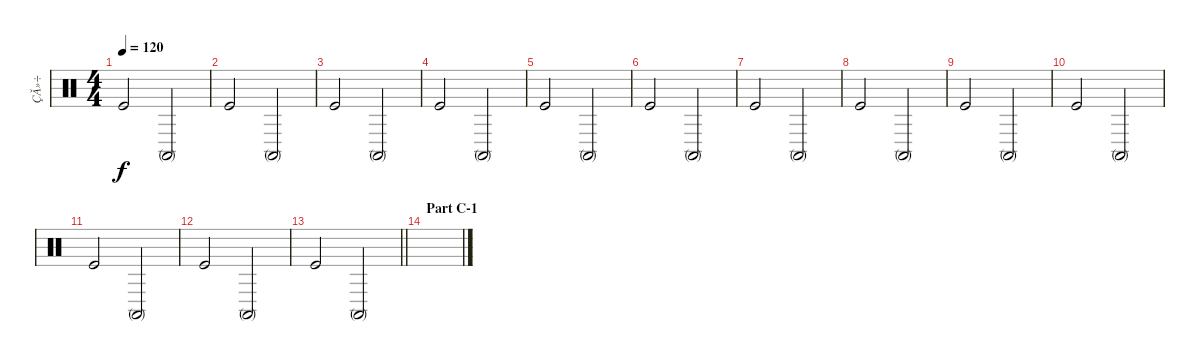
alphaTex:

\track ("ÇĂ»÷" "ÇĂ»÷") {instrument percussion}
\staff {score}
\articulation defaults
\ts (4 4)
\tempo 120
\clef neutral
\ks c "Kick (hit)".2{dy f} "Conga high (mute)".2
|
"Kick (hit)".2 "Conga high (mute)".2 |
"Kick (hit)".2 "Conga high (mute)".2 |
"Kick (hit)".2 "Conga high (mute)".2 |
"Kick (hit)".2 "Conga high (mute)".2 |
"Kick (hit)".2 "Conga high (mute)".2 |
"Kick (hit)".2 "Conga high (mute)".2 |
"Kick (hit)".2 "Conga high (mute)".2 |
"Kick (hit)".2 "Conga high (mute)".2 |
"Kick (hit)".2 "Conga high (mute)".2 |
"Kick (hit)".2 "Conga high (mute)".2 |
"Kick (hit)".2 "Conga high (mute)".2 |
\barLineRight lightlight "Kick (hit)".2 "Conga high (mute)".2
|
\section ("" "Part C-1")
